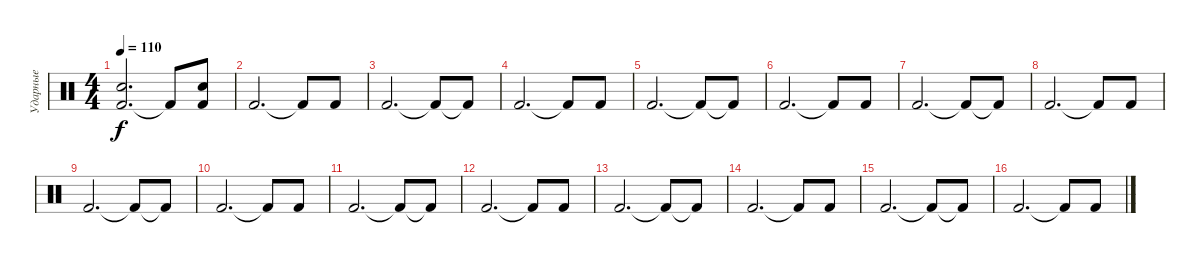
\track ("Ударные" "Ударные") {instrument percussion}
\staff {score}
\articulation defaults
\ts (4 4)
\tempo 110
\clef neutral
\ks c
("Kick (hit) 2" "Snare (hit) 2").2{d dy f} "Kick (hit) 2"{t}.8 ("Kick (hit) 2" "Snare (hit) 2").8 |
"Kick (hit) 2".2{d} "Kick (hit) 2"{t}.8 "Kick (hit) 2".8 |
"Kick (hit) 2".2{d} "Kick (hit) 2"{t}.8 "Kick (hit) 2"{t}.8 |
"Kick (hit) 2".2{d} "Kick (hit) 2"{t}.8 "Kick (hit) 2".8 |
"Kick (hit) 2".2{d} "Kick (hit) 2"{t}.8 "Kick (hit) 2"{t}.8 |
"Kick (hit) 2".2{d} "Kick (hit) 2"{t}.8 "Kick (hit) 2".8 |
"Kick (hit) 2".2{d} "Kick (hit) 2"{t}.8 "Kick (hit) 2"{t}.8 |
"Kick (hit) 2".2{d} "Kick (hit) 2"{t}.8 "Kick (hit) 2".8 |
"Kick (hit) 2".2{d} "Kick (hit) 2"{t}.8 "Kick (hit) 2"{t}.8 |
"Kick (hit) 2".2{d} "Kick (hit) 2"{t}.8 "Kick (hit) 2".8 |
"Kick (hit) 2".2{d} "Kick (hit) 2"{t}.8 "Kick (hit) 2"{t}.8 |
"Kick (hit) 2".2{d} "Kick (hit) 2"{t}.8 "Kick (hit) 2".8 |
"Kick (hit) 2".2{d} "Kick (hit) 2"{t}.8 "Kick (hit) 2"{t}.8 |
"Kick (hit) 2".2{d} "Kick (hit) 2"{t}.8 "Kick (hit) 2".8 |
"Kick (hit) 2".2{d} "Kick (hit) 2"{t}.8 "Kick (hit) 2"{t}.8 |
"Kick (hit) 2".2{d} "Kick (hit) 2"{t}.8 "Kick (hit) 2".8
